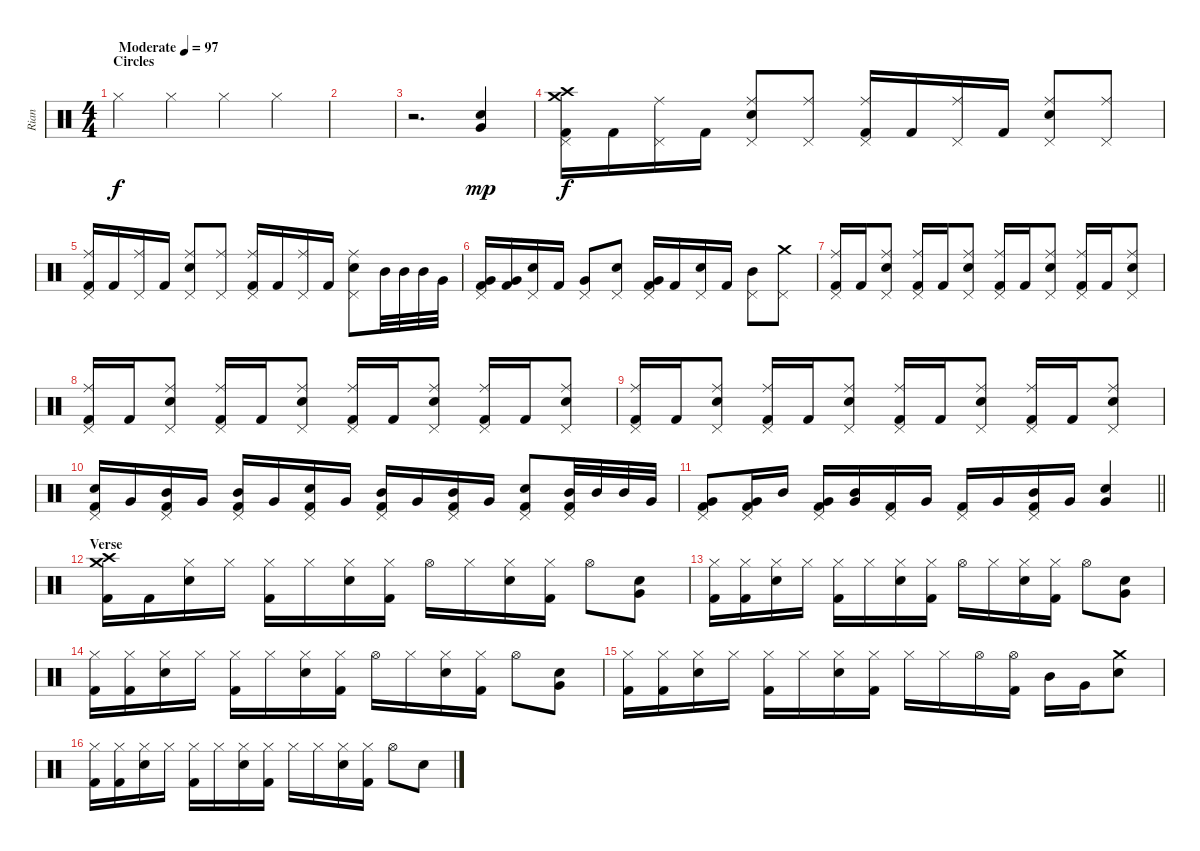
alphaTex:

\track ("Rian" "Rian") {instrument percussion}
\staff {score}
\articulation defaults
\ts (4 4)
\section ("" "Circles")
\tempo (97 "Moderate")
\clef neutral
\ks c "Hi-Hat (closed)".4{dy f} "Hi-Hat (closed)".4 "Hi-Hat (closed)".4 "Hi-Hat (closed)".4
|
|
r.2{d} ("Very Low Tom (hit)" "Electric Snare (hit)").4{dy mp} |
("Crash medium (hit)" "Crash high (hit)" "Pedal Hi-Hat (hit)" "Kick (hit) 2").16{dy f} "Kick (hit) 2".16 ("Ride (middle)" "Pedal Hi-Hat (hit)").16 "Kick (hit) 2".16 ("Ride (middle)" "Pedal Hi-Hat (hit)" "Electric Snare (hit)").8 ("Ride (middle)" "Pedal Hi-Hat (hit)").8 ("Ride (middle)" "Pedal Hi-Hat (hit)" "Kick (hit) 2").16 "Kick (hit) 2".16 ("Ride (middle)" "Pedal Hi-Hat (hit)").16 "Kick (hit) 2".16 ("Ride (middle)" "Pedal Hi-Hat (hit)" "Electric Snare (hit)").8 ("Ride (middle)" "Pedal Hi-Hat (hit)").8 |
("Ride (middle)" "Pedal Hi-Hat (hit)" "Kick (hit) 2").16 "Kick (hit) 2".16 ("Ride (middle)" "Pedal Hi-Hat (hit)").16 "Kick (hit) 2".16 ("Ride (middle)" "Pedal Hi-Hat (hit)" "Electric Snare (hit)").8 ("Ride (middle)" "Pedal Hi-Hat (hit)").8 ("Ride (middle)" "Pedal Hi-Hat (hit)" "Kick (hit) 2").16 "Kick (hit) 2".16 ("Ride (middle)" "Pedal Hi-Hat (hit)").16 "Kick (hit) 2".16 ("Ride (middle)" "Pedal Hi-Hat (hit)" "Electric Snare (hit)").8 "Mid Tom (hit)".32 "Mid Tom (hit)".32 "Mid Tom (hit)".32 "Very Low Tom (hit)".32 |
("Pedal Hi-Hat (hit)" "Very Low Tom (hit)" "Kick (hit) 2").16 ("Very Low Tom (hit)" "Kick (hit) 2").16 ("Pedal Hi-Hat (hit)" "Electric Snare (hit)").16 "Kick (hit) 2".16 ("Pedal Hi-Hat (hit)" "Very Low Tom (hit)").8 ("Pedal Hi-Hat (hit)" "Electric Snare (hit)").8 ("Pedal Hi-Hat (hit)" "Very Low Tom (hit)" "Kick (hit) 2").16 "Kick (hit) 2".16 ("Pedal Hi-Hat (hit)" "Electric Snare (hit)").16 "Kick (hit) 2".16 ("Pedal Hi-Hat (hit)" "Mid Tom (hit)").8 ("Crash medium (hit)" "Pedal Hi-Hat (hit)").8 |
("Ride (middle)" "Pedal Hi-Hat (hit)" "Kick (hit) 2").16 "Kick (hit) 2".16 ("Ride (middle)" "Pedal Hi-Hat (hit)" "Electric Snare (hit)").8 ("Ride (middle)" "Pedal Hi-Hat (hit)" "Kick (hit) 2").16 "Kick (hit) 2".16 ("Ride (middle)" "Pedal Hi-Hat (hit)" "Electric Snare (hit)").8 ("Ride (middle)" "Pedal Hi-Hat (hit)" "Kick (hit) 2").16 "Kick (hit) 2".16 ("Ride (middle)" "Pedal Hi-Hat (hit)" "Electric Snare (hit)").8 ("Ride (middle)" "Pedal Hi-Hat (hit)" "Kick (hit) 2").16 "Kick (hit) 2".16 ("Ride (middle)" "Pedal Hi-Hat (hit)" "Electric Snare (hit)").8 |
("Ride (middle)" "Pedal Hi-Hat (hit)" "Kick (hit) 2").16 "Kick (hit) 2".16 ("Ride (middle)" "Pedal Hi-Hat (hit)" "Electric Snare (hit)").8 ("Ride (middle)" "Pedal Hi-Hat (hit)" "Kick (hit) 2").16 "Kick (hit) 2".16 ("Ride (middle)" "Pedal Hi-Hat (hit)" "Electric Snare (hit)").8 ("Ride (middle)" "Pedal Hi-Hat (hit)" "Kick (hit) 2").16 "Kick (hit) 2".16 ("Ride (middle)" "Pedal Hi-Hat (hit)" "Electric Snare (hit)").8 ("Ride (middle)" "Pedal Hi-Hat (hit)" "Kick (hit) 2").16 "Kick (hit) 2".16 ("Ride (middle)" "Pedal Hi-Hat (hit)" "Electric Snare (hit)").8 |
("Ride (middle)" "Pedal Hi-Hat (hit)" "Kick (hit) 2").16 "Kick (hit) 2".16 ("Ride (middle)" "Pedal Hi-Hat (hit)" "Electric Snare (hit)").8 ("Ride (middle)" "Pedal Hi-Hat (hit)" "Kick (hit) 2").16 "Kick (hit) 2".16 ("Ride (middle)" "Pedal Hi-Hat (hit)" "Electric Snare (hit)").8 ("Ride (middle)" "Pedal Hi-Hat (hit)" "Kick (hit) 2").16 "Kick (hit) 2".16 ("Ride (middle)" "Pedal Hi-Hat (hit)" "Electric Snare (hit)").8 ("Ride (middle)" "Pedal Hi-Hat (hit)" "Kick (hit) 2").16 "Kick (hit) 2".16 ("Ride (middle)" "Pedal Hi-Hat (hit)" "Electric Snare (hit)").8 |
("Pedal Hi-Hat (hit)" "Electric Snare (hit)" "Kick (hit) 2").16 "Very Low Tom (hit)".16 ("Pedal Hi-Hat (hit)" "Mid Tom (hit)" "Kick (hit) 2").16 "Very Low Tom (hit)".16 ("Pedal Hi-Hat (hit)" "Mid Tom (hit)" "Kick (hit) 2").16 "Very Low Tom (hit)".16 ("Pedal Hi-Hat (hit)" "Electric Snare (hit)" "Kick (hit) 2").16 "Very Low Tom (hit)".16 ("Pedal Hi-Hat (hit)" "Mid Tom (hit)" "Kick (hit) 2").16 "Very Low Tom (hit)".16 ("Pedal Hi-Hat (hit)" "Mid Tom (hit)" "Kick (hit) 2").16 "Very Low Tom (hit)".16 ("Pedal Hi-Hat (hit)" "Electric Snare (hit)" "Kick (hit) 2").8 ("Pedal Hi-Hat (hit)" "Mid Tom (hit)" "Kick (hit) 2").32 "Mid Tom (hit)".32 "Mid Tom (hit)".32 "Very Low Tom (hit)".32 |
\barLineRight lightlight
("Pedal Hi-Hat (hit)" "Very Low Tom (hit)" "Kick (hit) 2").8 ("Pedal Hi-Hat (hit)" "Very Low Tom (hit)" "Kick (hit) 2").16 "Mid Tom (hit)".16 ("Pedal Hi-Hat (hit)" "Very Low Tom (hit)" "Kick (hit) 2").16 ("Very Low Tom (hit)" "Mid Tom (hit)").16 ("Pedal Hi-Hat (hit)" "Kick (hit) 2").16 "Very Low Tom (hit)".16 ("Pedal Hi-Hat (hit)" "Kick (hit) 2").16 "Very Low Tom (hit)".16 ("Pedal Hi-Hat (hit)" "Mid Tom (hit)" "Kick (hit) 2").16 "Very Low Tom (hit)".16 ("Very Low Tom (hit)" "Electric Snare (hit)").4 |
\section ("" "Verse")
("Crash medium (hit)" "Crash high (hit)" "Kick (hit) 2").16 "Kick (hit) 2".16 ("Hi-Hat (closed)" "Electric Snare (hit)").16 "Hi-Hat (closed)".16 ("Hi-Hat (closed)" "Kick (hit) 2").16 "Hi-Hat (closed)".16 ("Hi-Hat (closed)" "Electric Snare (hit)").16 ("Hi-Hat (closed)" "Kick (hit) 2").16 "Hi-Hat (open)".16 "Hi-Hat (closed)".16 ("Hi-Hat (closed)" "Electric Snare (hit)").16 ("Hi-Hat (closed)" "Kick (hit) 2").16 "Hi-Hat (open)".8 ("Very Low Tom (hit)" "Electric Snare (hit)").8 |
("Hi-Hat (closed)" "Kick (hit) 2").16 ("Hi-Hat (closed)" "Kick (hit) 2").16 ("Hi-Hat (closed)" "Electric Snare (hit)").16 "Hi-Hat (closed)".16 ("Hi-Hat (closed)" "Kick (hit) 2").16 "Hi-Hat (closed)".16 ("Hi-Hat (closed)" "Electric Snare (hit)").16 ("Hi-Hat (closed)" "Kick (hit) 2").16 "Hi-Hat (open)".16 "Hi-Hat (closed)".16 ("Hi-Hat (closed)" "Electric Snare (hit)").16 ("Hi-Hat (closed)" "Kick (hit) 2").16 "Hi-Hat (open)".8 ("Very Low Tom (hit)" "Electric Snare (hit)").8 |
("Hi-Hat (closed)" "Kick (hit) 2").16 ("Hi-Hat (closed)" "Kick (hit) 2").16 ("Hi-Hat (closed)" "Electric Snare (hit)").16 "Hi-Hat (closed)".16 ("Hi-Hat (closed)" "Kick (hit) 2").16 "Hi-Hat (closed)".16 ("Hi-Hat (closed)" "Electric Snare (hit)").16 ("Hi-Hat (closed)" "Kick (hit) 2").16 "Hi-Hat (open)".16 "Hi-Hat (closed)".16 ("Hi-Hat (closed)" "Electric Snare (hit)").16 ("Hi-Hat (closed)" "Kick (hit) 2").16 "Hi-Hat (open)".8 ("Very Low Tom (hit)" "Electric Snare (hit)").8 |
("Hi-Hat (closed)" "Kick (hit) 2").16 ("Hi-Hat (closed)" "Kick (hit) 2").16 ("Hi-Hat (closed)" "Electric Snare (hit)").16 "Hi-Hat (closed)".16 ("Hi-Hat (closed)" "Kick (hit) 2").16 "Hi-Hat (closed)".16 ("Hi-Hat (closed)" "Electric Snare (hit)").16 ("Hi-Hat (closed)" "Kick (hit) 2").16 "Hi-Hat (closed)".16 "Hi-Hat (closed)".16 "Hi-Hat (open)".16 ("Hi-Hat (open)" "Kick (hit) 2").16 "Mid Tom (hit)".16 "Very Low Tom (hit)".16 ("Crash medium (hit)" "Electric Snare (hit)").8 |
("Hi-Hat (closed)" "Kick (hit) 2").16 ("Hi-Hat (closed)" "Kick (hit) 2").16 ("Hi-Hat (closed)" "Electric Snare (hit)").16 "Hi-Hat (closed)".16 ("Hi-Hat (closed)" "Kick (hit) 2").16 "Hi-Hat (closed)".16 ("Hi-Hat (closed)" "Electric Snare (hit)").16 ("Hi-Hat (closed)" "Kick (hit) 2").16 "Hi-Hat (closed)".16 "Hi-Hat (closed)".16 ("Hi-Hat (closed)" "Electric Snare (hit)").16 ("Hi-Hat (closed)" "Kick (hit) 2").16 "Hi-Hat (open)".8 "Electric Snare (hit)".8
